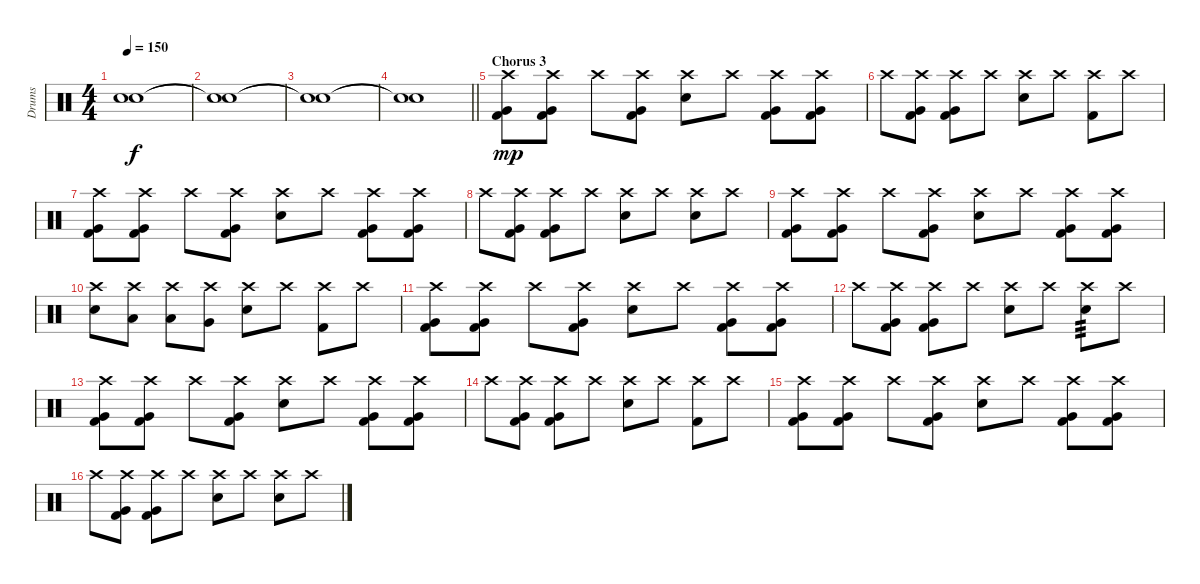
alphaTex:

\track ("Drums" "Drums") {instrument percussion}
\staff {score}
\articulation defaults
\ts (4 4)
\tempo 150
\clef neutral
\ks c
("Snare (hit)"{t} "Snare (hit)"{t}).1{dy f} |
("Snare (hit)"{t} "Snare (hit)"{t}).1 |
("Snare (hit)"{t} "Snare (hit)"{t}).1 |
\barLineRight lightlight
("Snare (hit)"{t} "Snare (hit)"{t}).1 |
\section ("" "Chorus 3")
("Crash high (hit)" "Very Low Tom (hit)" "Kick (hit) 2").8{dy mp} ("Crash high (hit)" "Very Low Tom (hit)" "Kick (hit) 2").8 "Crash high (hit)".8 ("Crash high (hit)" "Very Low Tom (hit)" "Kick (hit) 2").8 ("Crash high (hit)" "Electric Snare (hit)").8 "Crash high (hit)".8 ("Crash high (hit)" "Very Low Tom (hit)" "Kick (hit) 2").8 ("Crash high (hit)" "Very Low Tom (hit)" "Kick (hit) 2").8 |
"Crash high (hit)".8 ("Crash high (hit)" "Very Low Tom (hit)" "Kick (hit) 2").8 ("Crash high (hit)" "Very Low Tom (hit)" "Kick (hit) 2").8 "Crash high (hit)".8 ("Crash high (hit)" "Electric Snare (hit)").8 "Crash high (hit)".8 ("Crash high (hit)" "Kick (hit) 2").8 "Crash high (hit)".8 |
("Crash high (hit)" "Very Low Tom (hit)" "Kick (hit) 2").8 ("Crash high (hit)" "Very Low Tom (hit)" "Kick (hit) 2").8 "Crash high (hit)".8 ("Crash high (hit)" "Very Low Tom (hit)" "Kick (hit) 2").8 ("Crash high (hit)" "Electric Snare (hit)").8 "Crash high (hit)".8 ("Crash high (hit)" "Very Low Tom (hit)" "Kick (hit) 2").8 ("Crash high (hit)" "Very Low Tom (hit)" "Kick (hit) 2").8 |
"Crash high (hit)".8 ("Crash high (hit)" "Very Low Tom (hit)" "Kick (hit) 2").8 ("Crash high (hit)" "Very Low Tom (hit)" "Kick (hit) 2").8 "Crash high (hit)".8 ("Crash high (hit)" "Electric Snare (hit)").8 "Crash high (hit)".8 ("Crash high (hit)" "Electric Snare (hit)").8 "Crash high (hit)".8 |
("Crash high (hit)" "Very Low Tom (hit)" "Kick (hit) 2").8 ("Crash high (hit)" "Very Low Tom (hit)" "Kick (hit) 2").8 "Crash high (hit)".8 ("Crash high (hit)" "Very Low Tom (hit)" "Kick (hit) 2").8 ("Crash high (hit)" "Electric Snare (hit)").8 "Crash high (hit)".8 ("Crash high (hit)" "Very Low Tom (hit)" "Kick (hit) 2").8 ("Crash high (hit)" "Very Low Tom (hit)" "Kick (hit) 2").8 |
("Crash high (hit)" "Electric Snare (hit)").8 ("Crash high (hit)" "Low Tom (hit)").8 ("Crash high (hit)" "Low Tom (hit)").8 ("Crash high (hit)" "Very Low Tom (hit)").8 ("Crash high (hit)" "Electric Snare (hit)").8 "Crash high (hit)".8 ("Crash high (hit)" "Kick (hit) 2").8 "Crash high (hit)".8 |
("Crash high (hit)" "Very Low Tom (hit)" "Kick (hit) 2").8 ("Crash high (hit)" "Very Low Tom (hit)" "Kick (hit) 2").8 "Crash high (hit)".8 ("Crash high (hit)" "Very Low Tom (hit)" "Kick (hit) 2").8 ("Crash high (hit)" "Electric Snare (hit)").8 "Crash high (hit)".8 ("Crash high (hit)" "Very Low Tom (hit)" "Kick (hit) 2").8 ("Crash high (hit)" "Very Low Tom (hit)" "Kick (hit) 2").8 |
"Crash high (hit)".8 ("Crash high (hit)" "Very Low Tom (hit)" "Kick (hit) 2").8 ("Crash high (hit)" "Very Low Tom (hit)" "Kick (hit) 2").8 "Crash high (hit)".8 ("Crash high (hit)" "Electric Snare (hit)").8 "Crash high (hit)".8 ("Crash high (hit)" "Electric Snare (hit)").8{tp 3} "Crash high (hit)".8 |
("Crash high (hit)" "Very Low Tom (hit)" "Kick (hit) 2").8 ("Crash high (hit)" "Very Low Tom (hit)" "Kick (hit) 2").8 "Crash high (hit)".8 ("Crash high (hit)" "Very Low Tom (hit)" "Kick (hit) 2").8 ("Crash high (hit)" "Electric Snare (hit)").8 "Crash high (hit)".8 ("Crash high (hit)" "Very Low Tom (hit)" "Kick (hit) 2").8 ("Crash high (hit)" "Very Low Tom (hit)" "Kick (hit) 2").8 |
"Crash high (hit)".8 ("Crash high (hit)" "Very Low Tom (hit)" "Kick (hit) 2").8 ("Crash high (hit)" "Very Low Tom (hit)" "Kick (hit) 2").8 "Crash high (hit)".8 ("Crash high (hit)" "Electric Snare (hit)").8 "Crash high (hit)".8 ("Crash high (hit)" "Kick (hit) 2").8 "Crash high (hit)".8 |
("Crash high (hit)" "Very Low Tom (hit)" "Kick (hit) 2").8 ("Crash high (hit)" "Very Low Tom (hit)" "Kick (hit) 2").8 "Crash high (hit)".8 ("Crash high (hit)" "Very Low Tom (hit)" "Kick (hit) 2").8 ("Crash high (hit)" "Electric Snare (hit)").8 "Crash high (hit)".8 ("Crash high (hit)" "Very Low Tom (hit)" "Kick (hit) 2").8 ("Crash high (hit)" "Very Low Tom (hit)" "Kick (hit) 2").8 |
"Crash high (hit)".8 ("Crash high (hit)" "Very Low Tom (hit)" "Kick (hit) 2").8 ("Crash high (hit)" "Very Low Tom (hit)" "Kick (hit) 2").8 "Crash high (hit)".8 ("Crash high (hit)" "Electric Snare (hit)").8 "Crash high (hit)".8 ("Crash high (hit)" "Electric Snare (hit)").8 "Crash high (hit)".8
